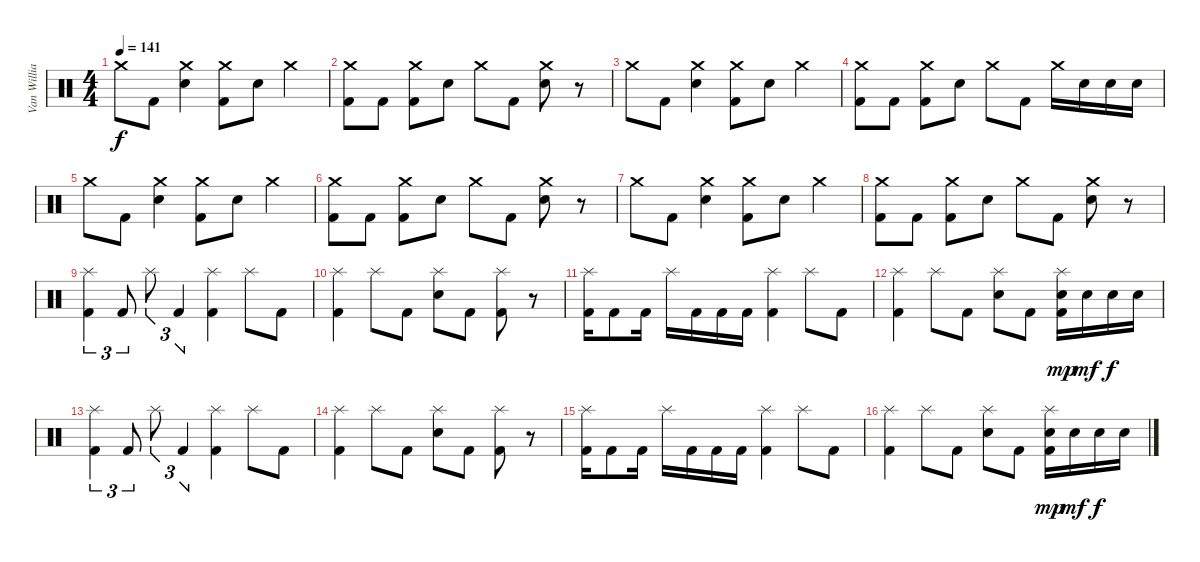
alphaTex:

\track ("Van Williams" "Van Willia") {instrument percussion}
\staff {score}
\articulation defaults
\ts (4 4)
\tempo 141
\clef neutral
\ks c "Crash medium (hit)".8{dy f} "Kick (hit) 2".8
("Crash medium (hit)" "Electric Snare (hit)").4 ("Crash medium (hit)" "Kick (hit) 2").8 "Electric Snare (hit)".8 "Crash medium (hit)".4 |
("Crash medium (hit)" "Kick (hit) 2").8 "Kick (hit) 2".8 ("Crash medium (hit)" "Kick (hit) 2").8 "Electric Snare (hit)".8 "Crash medium (hit)".8 "Kick (hit) 2".8 ("Crash medium (hit)" "Electric Snare (hit)").8 r.8 |
"Crash medium (hit)".8 "Kick (hit) 2".8 ("Crash medium (hit)" "Electric Snare (hit)").4 ("Crash medium (hit)" "Kick (hit) 2").8 "Electric Snare (hit)".8 "Crash medium (hit)".4 |
("Crash medium (hit)" "Kick (hit) 2").8 "Kick (hit) 2".8 ("Crash medium (hit)" "Kick (hit) 2").8 "Electric Snare (hit)".8 "Crash medium (hit)".8 "Kick (hit) 2".8 "Crash medium (hit)".16 "Electric Snare (hit)".16 "Electric Snare (hit)".16 "Electric Snare (hit)".16 |
"Crash medium (hit)".8 "Kick (hit) 2".8 ("Crash medium (hit)" "Electric Snare (hit)").4 ("Crash medium (hit)" "Kick (hit) 2").8 "Electric Snare (hit)".8 "Crash medium (hit)".4 |
("Crash medium (hit)" "Kick (hit) 2").8 "Kick (hit) 2".8 ("Crash medium (hit)" "Kick (hit) 2").8 "Electric Snare (hit)".8 "Crash medium (hit)".8 "Kick (hit) 2".8 ("Crash medium (hit)" "Electric Snare (hit)").8 r.8 |
"Crash medium (hit)".8 "Kick (hit) 2".8 ("Crash medium (hit)" "Electric Snare (hit)").4 ("Crash medium (hit)" "Kick (hit) 2").8 "Electric Snare (hit)".8 "Crash medium (hit)".4 |
("Crash medium (hit)" "Kick (hit) 2").8 "Kick (hit) 2".8 ("Crash medium (hit)" "Kick (hit) 2").8 "Electric Snare (hit)".8 "Crash medium (hit)".8 "Kick (hit) 2".8 ("Crash medium (hit)" "Electric Snare (hit)").8 r.8 |
("Splash (hit)" "Kick (hit) 2").4{tu (3 2)} "Kick (hit) 2".8{tu (3 2)} "Splash (hit)".8{tu (3 2)} "Kick (hit) 2".4{tu (3 2)} ("Splash (hit)" "Kick (hit) 2").4 "Splash (hit)".8 "Kick (hit) 2".8 |
("Splash (hit)" "Kick (hit) 2").4 "Splash (hit)".8 "Kick (hit) 2".8 ("Splash (hit)" "Electric Snare (hit)").8 "Kick (hit) 2".8 ("Splash (hit)" "Kick (hit) 2").8 r.8 |
("Splash (hit)" "Kick (hit) 2").16 "Kick (hit) 2".8 "Kick (hit) 2".16 "Splash (hit)".16 "Kick (hit) 2".16 "Kick (hit) 2".16 "Kick (hit) 2".16 ("Splash (hit)" "Kick (hit) 2").4 "Splash (hit)".8 "Kick (hit) 2".8 |
("Splash (hit)" "Kick (hit) 2").4 "Splash (hit)".8 "Kick (hit) 2".8 ("Splash (hit)" "Electric Snare (hit)").8 "Kick (hit) 2".8 ("Splash (hit)" "Electric Snare (hit)" "Kick (hit) 2").16{dy mp} "Electric Snare (hit)".16{dy mf} "Electric Snare (hit)".16{dy f} "Electric Snare (hit)".16 |
("Splash (hit)" "Kick (hit) 2").4{tu (3 2)} "Kick (hit) 2".8{tu (3 2)} "Splash (hit)".8{tu (3 2)} "Kick (hit) 2".4{tu (3 2)} ("Splash (hit)" "Kick (hit) 2").4 "Splash (hit)".8 "Kick (hit) 2".8 |
("Splash (hit)" "Kick (hit) 2").4 "Splash (hit)".8 "Kick (hit) 2".8 ("Splash (hit)" "Electric Snare (hit)").8 "Kick (hit) 2".8 ("Splash (hit)" "Kick (hit) 2").8 r.8 |
("Splash (hit)" "Kick (hit) 2").16 "Kick (hit) 2".8 "Kick (hit) 2".16 "Splash (hit)".16 "Kick (hit) 2".16 "Kick (hit) 2".16 "Kick (hit) 2".16 ("Splash (hit)" "Kick (hit) 2").4 "Splash (hit)".8 "Kick (hit) 2".8 |
("Splash (hit)" "Kick (hit) 2").4 "Splash (hit)".8 "Kick (hit) 2".8 ("Splash (hit)" "Electric Snare (hit)").8 "Kick (hit) 2".8 ("Splash (hit)" "Electric Snare (hit)" "Kick (hit) 2").16{dy mp} "Electric Snare (hit)".16{dy mf} "Electric Snare (hit)".16{dy f} "Electric Snare (hit)".16
